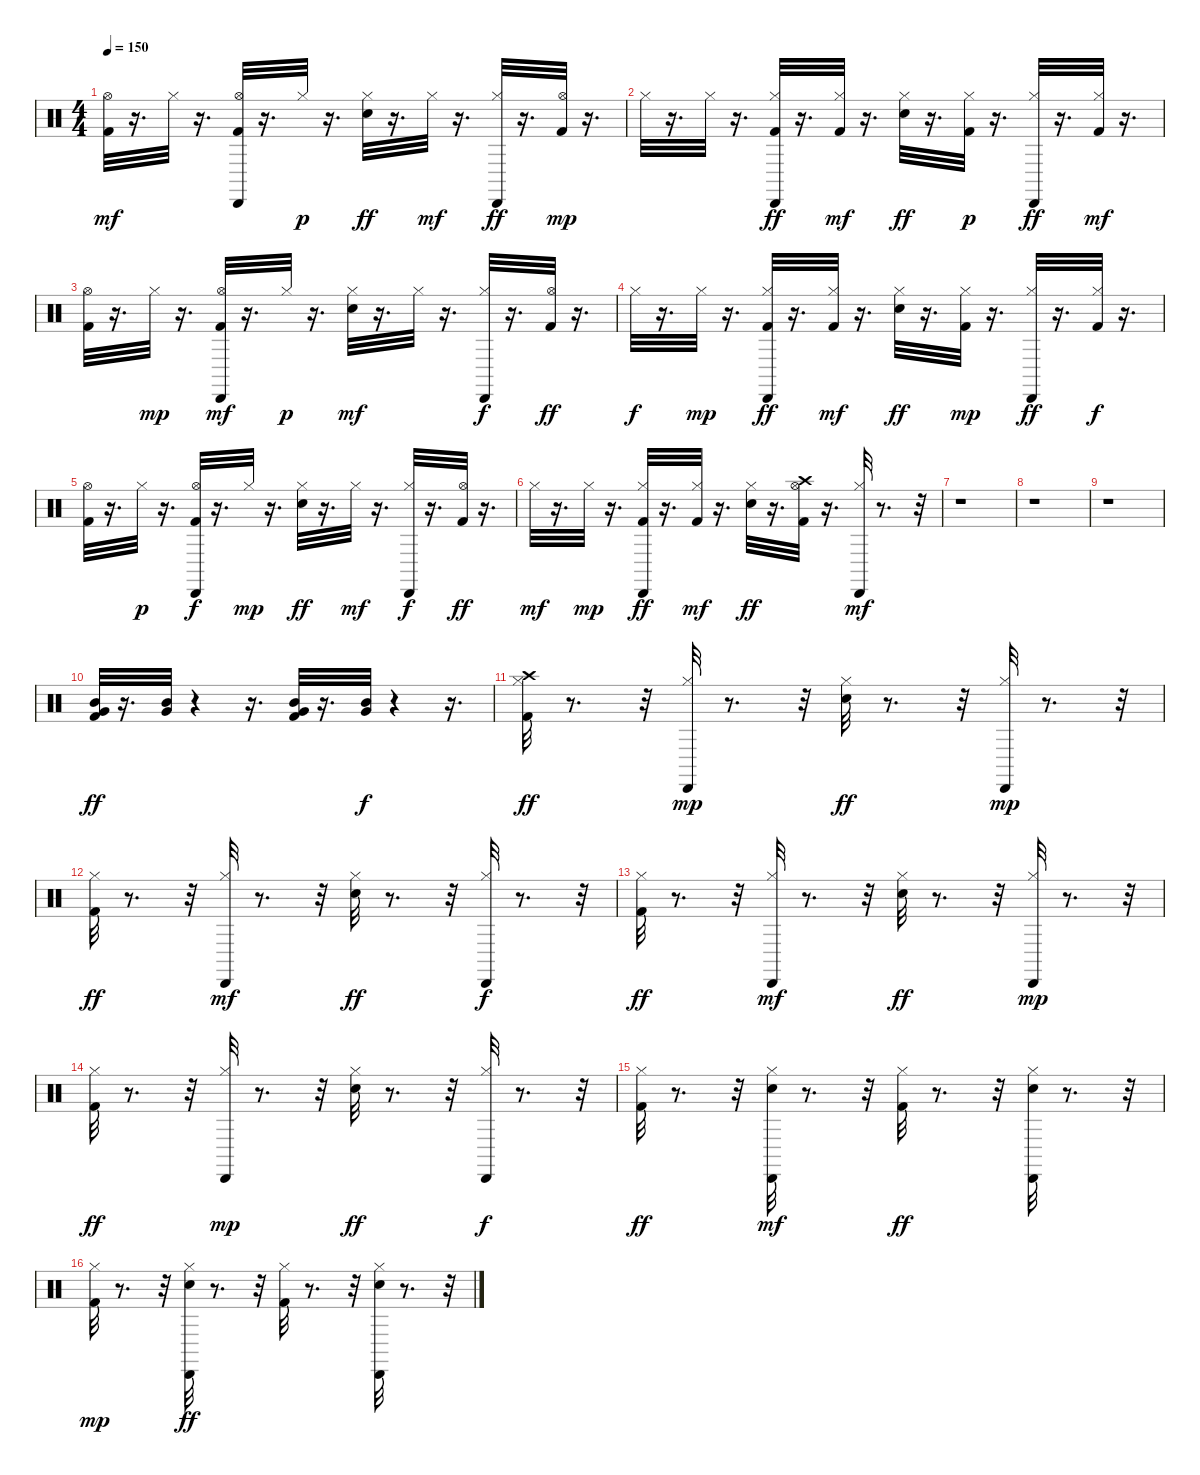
\track "" {instrument percussion}
\staff {score}
\articulation defaults
\ts (4 4)
\tempo 150
\clef neutral
\ks c
("Kick (hit) 2" "Hi-Hat (open)").32{dy mf} r.16{d} "Hi-Hat (closed)".32 r.16{d} ("Kick (hit) 2" "Hi-Hat (open)" "Cabasa (hit)").32 r.16{d} "Hi-Hat (closed)".32{dy p} r.16{d} ("Hi-Hat (closed)" "Snare (hit) 2").32{dy ff} r.16{d} "Hi-Hat (closed)".32{dy mf} r.16{d} ("Hi-Hat (closed)" "Cabasa (hit)").32{dy ff} r.16{d} ("Hi-Hat (open)" "Kick (hit) 2").32{dy mp} r.16{d} |
"Hi-Hat (closed)".32 r.16{d} "Hi-Hat (closed)".32 r.16{d} ("Kick (hit) 2" "Hi-Hat (closed)" "Cabasa (hit)").32{dy ff} r.16{d} ("Hi-Hat (closed)" "Kick (hit) 2").32{dy mf} r.16{d} ("Hi-Hat (closed)" "Snare (hit) 2").32{dy ff} r.16{d} ("Hi-Hat (closed)" "Kick (hit) 2").32{dy p} r.16{d} ("Hi-Hat (closed)" "Cabasa (hit)").32{dy ff} r.16{d} ("Hi-Hat (closed)" "Kick (hit) 2").32{dy mf} r.16{d} |
("Kick (hit) 2" "Hi-Hat (open)").32 r.16{d} "Hi-Hat (closed)".32{dy mp} r.16{d} ("Kick (hit) 2" "Hi-Hat (open)" "Cabasa (hit)").32{dy mf} r.16{d} "Hi-Hat (closed)".32{dy p} r.16{d} ("Hi-Hat (closed)" "Snare (hit) 2").32{dy mf} r.16{d} "Hi-Hat (closed)".32 r.16{d} ("Hi-Hat (closed)" "Cabasa (hit)").32{dy f} r.16{d} ("Hi-Hat (open)" "Kick (hit) 2").32{dy ff} r.16{d} |
"Hi-Hat (closed)".32{dy f} r.16{d} "Hi-Hat (closed)".32{dy mp} r.16{d} ("Kick (hit) 2" "Hi-Hat (closed)" "Cabasa (hit)").32{dy ff} r.16{d} ("Hi-Hat (closed)" "Kick (hit) 2").32{dy mf} r.16{d} ("Hi-Hat (closed)" "Snare (hit) 2").32{dy ff} r.16{d} ("Hi-Hat (closed)" "Kick (hit) 2").32{dy mp} r.16{d} ("Hi-Hat (closed)" "Cabasa (hit)").32{dy ff} r.16{d} ("Hi-Hat (closed)" "Kick (hit) 2").32{dy f} r.16{d} |
("Kick (hit) 2" "Hi-Hat (open)").32 r.16{d} "Hi-Hat (closed)".32{dy p} r.16{d} ("Kick (hit) 2" "Hi-Hat (open)" "Cabasa (hit)").32{dy f} r.16{d} "Hi-Hat (closed)".32{dy mp} r.16{d} ("Hi-Hat (closed)" "Snare (hit) 2").32{dy ff} r.16{d} "Hi-Hat (closed)".32{dy mf} r.16{d} ("Hi-Hat (closed)" "Cabasa (hit)").32{dy f} r.16{d} ("Hi-Hat (open)" "Kick (hit) 2").32{dy ff} r.16{d} |
"Hi-Hat (closed)".32{dy mf} r.16{d} "Hi-Hat (closed)".32{dy mp} r.16{d} ("Kick (hit) 2" "Hi-Hat (closed)" "Cabasa (hit)").32{dy ff} r.16{d} ("Hi-Hat (closed)" "Kick (hit) 2").32{dy mf} r.16{d} ("Hi-Hat (closed)" "Snare (hit) 2").32{dy ff} r.16{d} ("Crash high (hit)" "Hi-Hat (open)" "Kick (hit) 2").32 r.16{d} ("Hi-Hat (closed)" "Cabasa (hit)").32{dy mf} r.8{d} r.32 |
r.1 |
r.1 |
r.1 |
("Kick (hit) 2" "Mid Tom (hit)" "Very Low Tom (hit)").32{dy ff} r.16{d} ("Very Low Tom (hit)" "Mid Tom (hit)").32 r.4 r.16{d} ("Kick (hit) 2" "Very Low Tom (hit)" "Mid Tom (hit)").32 r.16{d} ("Very Low Tom (hit)" "Mid Tom (hit)").32{dy f} r.4 r.16{d} |
("Kick (hit) 2" "Hi-Hat (closed)" "Crash high (hit)").32{dy ff} r.8{d} r.32 ("Hi-Hat (closed)" "Cabasa (hit)").32{dy mp} r.8{d} r.32 ("Hi-Hat (closed)" "Snare (hit) 2").32{dy ff} r.8{d} r.32 ("Hi-Hat (closed)" "Cabasa (hit)").32{dy mp} r.8{d} r.32 |
("Kick (hit) 2" "Hi-Hat (closed)").32{dy ff} r.8{d} r.32 ("Hi-Hat (closed)" "Cabasa (hit)").32{dy mf} r.8{d} r.32 ("Hi-Hat (closed)" "Snare (hit) 2").32{dy ff} r.8{d} r.32 ("Hi-Hat (closed)" "Cabasa (hit)").32{dy f} r.8{d} r.32 |
("Kick (hit) 2" "Hi-Hat (closed)").32{dy ff} r.8{d} r.32 ("Hi-Hat (closed)" "Cabasa (hit)").32{dy mf} r.8{d} r.32 ("Hi-Hat (closed)" "Snare (hit) 2").32{dy ff} r.8{d} r.32 ("Hi-Hat (closed)" "Cabasa (hit)").32{dy mp} r.8{d} r.32 |
("Kick (hit) 2" "Hi-Hat (closed)").32{dy ff} r.8{d} r.32 ("Hi-Hat (closed)" "Cabasa (hit)").32{dy mp} r.8{d} r.32 ("Hi-Hat (closed)" "Snare (hit) 2").32{dy ff} r.8{d} r.32 ("Hi-Hat (closed)" "Cabasa (hit)").32{dy f} r.8{d} r.32 |
("Kick (hit) 2" "Hi-Hat (closed)").32{dy ff} r.8{d} r.32 ("Hi-Hat (closed)" "Snare (hit) 2" "Cabasa (hit)").32{dy mf} r.8{d} r.32 ("Kick (hit) 2" "Hi-Hat (closed)").32{dy ff} r.8{d} r.32 ("Hi-Hat (closed)" "Snare (hit) 2" "Cabasa (hit)").32 r.8{d} r.32 |
("Kick (hit) 2" "Hi-Hat (closed)").32{dy mp} r.8{d} r.32 ("Hi-Hat (closed)" "Snare (hit) 2" "Cabasa (hit)").32{dy ff} r.8{d} r.32 ("Kick (hit) 2" "Hi-Hat (closed)").32 r.8{d} r.32 ("Hi-Hat (closed)" "Snare (hit) 2" "Cabasa (hit)").32 r.8{d} r.32
